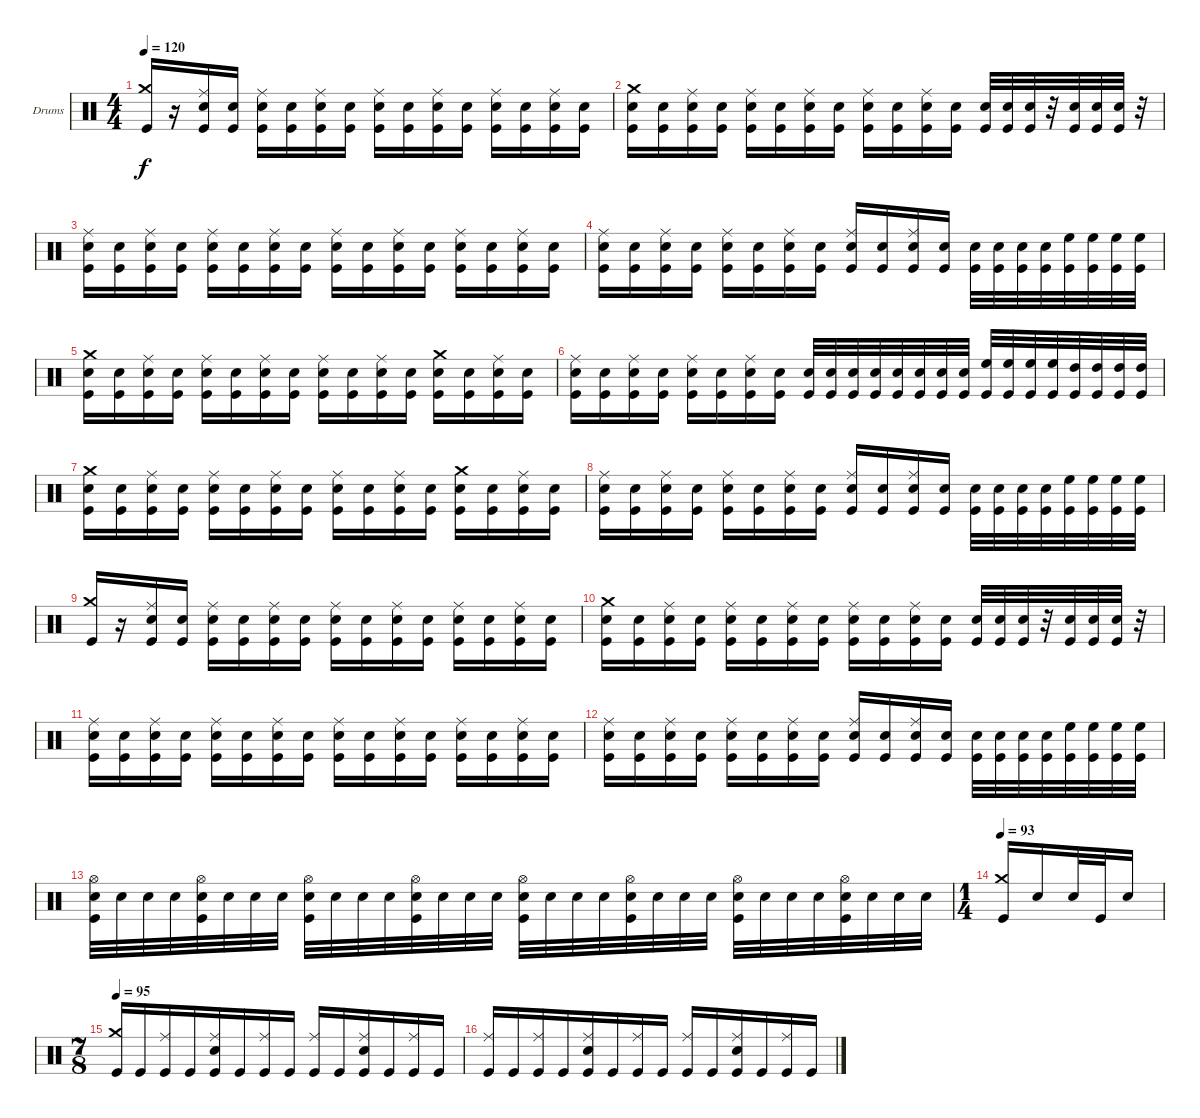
\defaultSystemsLayout 4
\bracketExtendMode groupsimilarinstruments
\firstSystemTrackNameOrientation horizontal
\otherSystemsTrackNameOrientation horizontal
\track ("Drumkit" "Drums") {instrument percussion}
\staff {score}
\articulation defaults
\ts (4 4)
\tempo 120
\clef neutral
\ks c
("Crash medium (hit)" "Kick (hit)").16{dy f beam invert} r.16 ("Kick (hit)" "Snare (hit) 2" "Ride (middle)").16 ("Kick (hit)" "Snare (hit) 2").16 ("Kick (hit)" "Snare (hit) 2" "Ride (middle)").16 ("Kick (hit)" "Snare (hit) 2").16 ("Kick (hit)" "Snare (hit) 2" "Ride (middle)").16 ("Kick (hit)" "Snare (hit) 2").16 ("Kick (hit)" "Snare (hit) 2" "Ride (middle)").16 ("Kick (hit)" "Snare (hit) 2").16 ("Kick (hit)" "Snare (hit) 2" "Ride (middle)").16 ("Kick (hit)" "Snare (hit) 2").16 ("Kick (hit)" "Snare (hit) 2" "Ride (middle)").16 ("Kick (hit)" "Snare (hit) 2").16 ("Kick (hit)" "Snare (hit) 2" "Ride (middle)").16 ("Kick (hit)" "Snare (hit) 2").16 |
("Kick (hit)" "Snare (hit) 2" "Crash medium (hit)").16 ("Kick (hit)" "Snare (hit) 2").16 ("Kick (hit)" "Snare (hit) 2" "Ride (middle)").16 ("Kick (hit)" "Snare (hit) 2").16 ("Kick (hit)" "Snare (hit) 2" "Ride (middle)").16 ("Kick (hit)" "Snare (hit) 2").16 ("Kick (hit)" "Snare (hit) 2" "Ride (middle)").16 ("Kick (hit)" "Snare (hit) 2").16 ("Kick (hit)" "Snare (hit) 2" "Ride (middle)").16 ("Kick (hit)" "Snare (hit) 2").16 ("Kick (hit)" "Snare (hit) 2" "Ride (middle)").16 ("Kick (hit)" "Snare (hit) 2").16 ("Snare (hit) 2" "Kick (hit)").32 ("Snare (hit) 2" "Kick (hit)").32 ("Snare (hit) 2" "Kick (hit)").32 r.32 ("Snare (hit) 2" "Kick (hit)").32 ("Snare (hit) 2" "Kick (hit)").32 ("Snare (hit) 2" "Kick (hit)").32 r.32 |
("Kick (hit)" "Snare (hit) 2" "Ride (middle)").16 ("Kick (hit)" "Snare (hit) 2").16 ("Kick (hit)" "Snare (hit) 2" "Ride (middle)").16 ("Kick (hit)" "Snare (hit) 2").16 ("Kick (hit)" "Snare (hit) 2" "Ride (middle)").16 ("Kick (hit)" "Snare (hit) 2").16 ("Kick (hit)" "Snare (hit) 2" "Ride (middle)").16 ("Kick (hit)" "Snare (hit) 2").16 ("Kick (hit)" "Snare (hit) 2" "Ride (middle)").16 ("Kick (hit)" "Snare (hit) 2").16 ("Kick (hit)" "Snare (hit) 2" "Ride (middle)").16 ("Kick (hit)" "Snare (hit) 2").16 ("Kick (hit)" "Snare (hit) 2" "Ride (middle)").16 ("Kick (hit)" "Snare (hit) 2").16 ("Kick (hit)" "Snare (hit) 2" "Ride (middle)").16 ("Kick (hit)" "Snare (hit) 2").16 |
("Kick (hit)" "Snare (hit) 2" "Ride (middle)").16 ("Kick (hit)" "Snare (hit) 2").16 ("Kick (hit)" "Snare (hit) 2" "Ride (middle)").16 ("Kick (hit)" "Snare (hit) 2").16 ("Kick (hit)" "Snare (hit) 2" "Ride (middle)").16 ("Kick (hit)" "Snare (hit) 2").16 ("Kick (hit)" "Snare (hit) 2" "Ride (middle)").16 ("Kick (hit)" "Snare (hit) 2").16 ("Kick (hit)" "Snare (hit) 2" "Ride (middle)").16 ("Kick (hit)" "Snare (hit) 2").16 ("Kick (hit)" "Snare (hit) 2" "Ride (middle)").16 ("Kick (hit)" "Snare (hit) 2").16 ("Kick (hit)" "Snare (hit) 2").32{beam invert} ("Kick (hit)" "Snare (hit) 2").32 ("Kick (hit)" "Snare (hit) 2").32 ("Kick (hit)" "Snare (hit) 2").32 ("Kick (hit)" "High Floor Tom (hit)").32 ("Kick (hit)" "High Floor Tom (hit)").32 ("Kick (hit)" "High Floor Tom (hit)").32 ("Kick (hit)" "High Floor Tom (hit)").32 |
("Kick (hit)" "Snare (hit) 2" "Crash medium (hit)").16 ("Kick (hit)" "Snare (hit) 2").16 ("Kick (hit)" "Snare (hit) 2" "Ride (middle)").16 ("Kick (hit)" "Snare (hit) 2").16 ("Kick (hit)" "Snare (hit) 2" "Ride (middle)").16 ("Kick (hit)" "Snare (hit) 2").16 ("Kick (hit)" "Snare (hit) 2" "Ride (middle)").16 ("Kick (hit)" "Snare (hit) 2").16 ("Kick (hit)" "Snare (hit) 2" "Ride (middle)").16 ("Kick (hit)" "Snare (hit) 2").16 ("Kick (hit)" "Snare (hit) 2" "Ride (middle)").16 ("Kick (hit)" "Snare (hit) 2").16 ("Kick (hit)" "Snare (hit) 2" "Crash medium (hit)").16 ("Kick (hit)" "Snare (hit) 2").16 ("Kick (hit)" "Snare (hit) 2" "Ride (middle)").16 ("Kick (hit)" "Snare (hit) 2").16 |
("Kick (hit)" "Snare (hit) 2" "Ride (middle)").16 ("Kick (hit)" "Snare (hit) 2").16 ("Kick (hit)" "Snare (hit) 2" "Ride (middle)").16 ("Kick (hit)" "Snare (hit) 2").16 ("Kick (hit)" "Snare (hit) 2" "Ride (middle)").16 ("Kick (hit)" "Snare (hit) 2").16 ("Kick (hit)" "Snare (hit) 2" "Ride (middle)").16 ("Kick (hit)" "Snare (hit) 2").16 ("Kick (hit)" "Snare (hit) 2").32 ("Kick (hit)" "Snare (hit) 2").32 ("Kick (hit)" "Snare (hit) 2").32 ("Kick (hit)" "Snare (hit) 2").32 ("Kick (hit)" "Snare (hit) 2").32 ("Kick (hit)" "Snare (hit) 2").32 ("Kick (hit)" "Snare (hit) 2").32 ("Kick (hit)" "Snare (hit) 2").32 ("Kick (hit)" "High Floor Tom (hit)").32 ("Kick (hit)" "High Floor Tom (hit)").32 ("Kick (hit)" "High Floor Tom (hit)").32 ("Kick (hit)" "High Floor Tom (hit)").32 ("Kick (hit)" "High Tom (hit)").32 ("Kick (hit)" "High Tom (hit)").32 ("Kick (hit)" "High Tom (hit)").32 ("Kick (hit)" "High Tom (hit)").32 |
("Kick (hit)" "Snare (hit) 2" "Crash medium (hit)").16 ("Kick (hit)" "Snare (hit) 2").16 ("Kick (hit)" "Snare (hit) 2" "Ride (middle)").16 ("Kick (hit)" "Snare (hit) 2").16 ("Kick (hit)" "Snare (hit) 2" "Ride (middle)").16 ("Kick (hit)" "Snare (hit) 2").16 ("Kick (hit)" "Snare (hit) 2" "Ride (middle)").16 ("Kick (hit)" "Snare (hit) 2").16 ("Kick (hit)" "Snare (hit) 2" "Ride (middle)").16 ("Kick (hit)" "Snare (hit) 2").16 ("Kick (hit)" "Snare (hit) 2" "Ride (middle)").16 ("Kick (hit)" "Snare (hit) 2").16 ("Kick (hit)" "Snare (hit) 2" "Crash medium (hit)").16 ("Kick (hit)" "Snare (hit) 2").16 ("Kick (hit)" "Snare (hit) 2" "Ride (middle)").16 ("Kick (hit)" "Snare (hit) 2").16 |
("Kick (hit)" "Snare (hit) 2" "Ride (middle)").16 ("Kick (hit)" "Snare (hit) 2").16 ("Kick (hit)" "Snare (hit) 2" "Ride (middle)").16 ("Kick (hit)" "Snare (hit) 2").16 ("Kick (hit)" "Snare (hit) 2" "Ride (middle)").16 ("Kick (hit)" "Snare (hit) 2").16 ("Kick (hit)" "Snare (hit) 2" "Ride (middle)").16 ("Kick (hit)" "Snare (hit) 2").16 ("Kick (hit)" "Snare (hit) 2" "Ride (middle)").16 ("Kick (hit)" "Snare (hit) 2").16 ("Kick (hit)" "Snare (hit) 2" "Ride (middle)").16 ("Kick (hit)" "Snare (hit) 2").16 ("Kick (hit)" "Snare (hit) 2").32{beam invert} ("Kick (hit)" "Snare (hit) 2").32 ("Kick (hit)" "Snare (hit) 2").32 ("Kick (hit)" "Snare (hit) 2").32 ("Kick (hit)" "High Floor Tom (hit)").32 ("Kick (hit)" "High Floor Tom (hit)").32 ("Kick (hit)" "High Floor Tom (hit)").32 ("Kick (hit)" "High Floor Tom (hit)").32 |
("Crash medium (hit)" "Kick (hit)").16{beam invert} r.16 ("Kick (hit)" "Snare (hit) 2" "Ride (middle)").16 ("Kick (hit)" "Snare (hit) 2").16 ("Kick (hit)" "Snare (hit) 2" "Ride (middle)").16 ("Kick (hit)" "Snare (hit) 2").16 ("Kick (hit)" "Snare (hit) 2" "Ride (middle)").16 ("Kick (hit)" "Snare (hit) 2").16 ("Kick (hit)" "Snare (hit) 2" "Ride (middle)").16 ("Kick (hit)" "Snare (hit) 2").16 ("Kick (hit)" "Snare (hit) 2" "Ride (middle)").16 ("Kick (hit)" "Snare (hit) 2").16 ("Kick (hit)" "Snare (hit) 2" "Ride (middle)").16 ("Kick (hit)" "Snare (hit) 2").16 ("Kick (hit)" "Snare (hit) 2" "Ride (middle)").16 ("Kick (hit)" "Snare (hit) 2").16 |
("Kick (hit)" "Snare (hit) 2" "Crash medium (hit)").16 ("Kick (hit)" "Snare (hit) 2").16 ("Kick (hit)" "Snare (hit) 2" "Ride (middle)").16 ("Kick (hit)" "Snare (hit) 2").16 ("Kick (hit)" "Snare (hit) 2" "Ride (middle)").16 ("Kick (hit)" "Snare (hit) 2").16 ("Kick (hit)" "Snare (hit) 2" "Ride (middle)").16 ("Kick (hit)" "Snare (hit) 2").16 ("Kick (hit)" "Snare (hit) 2" "Ride (middle)").16 ("Kick (hit)" "Snare (hit) 2").16 ("Kick (hit)" "Snare (hit) 2" "Ride (middle)").16 ("Kick (hit)" "Snare (hit) 2").16 ("Snare (hit) 2" "Kick (hit)").32 ("Snare (hit) 2" "Kick (hit)").32 ("Snare (hit) 2" "Kick (hit)").32 r.32 ("Snare (hit) 2" "Kick (hit)").32 ("Snare (hit) 2" "Kick (hit)").32 ("Snare (hit) 2" "Kick (hit)").32 r.32 |
("Kick (hit)" "Snare (hit) 2" "Ride (middle)").16 ("Kick (hit)" "Snare (hit) 2").16 ("Kick (hit)" "Snare (hit) 2" "Ride (middle)").16 ("Kick (hit)" "Snare (hit) 2").16 ("Kick (hit)" "Snare (hit) 2" "Ride (middle)").16 ("Kick (hit)" "Snare (hit) 2").16 ("Kick (hit)" "Snare (hit) 2" "Ride (middle)").16 ("Kick (hit)" "Snare (hit) 2").16 ("Kick (hit)" "Snare (hit) 2" "Ride (middle)").16 ("Kick (hit)" "Snare (hit) 2").16 ("Kick (hit)" "Snare (hit) 2" "Ride (middle)").16 ("Kick (hit)" "Snare (hit) 2").16 ("Kick (hit)" "Snare (hit) 2" "Ride (middle)").16 ("Kick (hit)" "Snare (hit) 2").16 ("Kick (hit)" "Snare (hit) 2" "Ride (middle)").16 ("Kick (hit)" "Snare (hit) 2").16 |
("Kick (hit)" "Snare (hit) 2" "Ride (middle)").16 ("Kick (hit)" "Snare (hit) 2").16 ("Kick (hit)" "Snare (hit) 2" "Ride (middle)").16 ("Kick (hit)" "Snare (hit) 2").16 ("Kick (hit)" "Snare (hit) 2" "Ride (middle)").16 ("Kick (hit)" "Snare (hit) 2").16 ("Kick (hit)" "Snare (hit) 2" "Ride (middle)").16 ("Kick (hit)" "Snare (hit) 2").16 ("Kick (hit)" "Snare (hit) 2" "Ride (middle)").16 ("Kick (hit)" "Snare (hit) 2").16 ("Kick (hit)" "Snare (hit) 2" "Ride (middle)").16 ("Kick (hit)" "Snare (hit) 2").16 ("Kick (hit)" "Snare (hit) 2").32{beam invert} ("Kick (hit)" "Snare (hit) 2").32 ("Kick (hit)" "Snare (hit) 2").32 ("Kick (hit)" "Snare (hit) 2").32 ("Kick (hit)" "High Floor Tom (hit)").32 ("Kick (hit)" "High Floor Tom (hit)").32 ("Kick (hit)" "High Floor Tom (hit)").32 ("Kick (hit)" "High Floor Tom (hit)").32 |
("Snare (hit) 2" "Kick (hit)" "Hi-Hat (open)").32 "Snare (hit) 2".32 "Snare (hit) 2".32 "Snare (hit) 2".32 ("Snare (hit) 2" "Kick (hit)" "Hi-Hat (open)").32 "Snare (hit) 2".32 "Snare (hit) 2".32 "Snare (hit) 2".32 ("Snare (hit) 2" "Kick (hit)" "Hi-Hat (open)").32 "Snare (hit) 2".32 "Snare (hit) 2".32 "Snare (hit) 2".32 ("Snare (hit) 2" "Kick (hit)" "Hi-Hat (open)").32 "Snare (hit) 2".32 "Snare (hit) 2".32 "Snare (hit) 2".32 ("Snare (hit) 2" "Kick (hit)" "Hi-Hat (open)").32 "Snare (hit) 2".32 "Snare (hit) 2".32 "Snare (hit) 2".32 ("Snare (hit) 2" "Kick (hit)" "Hi-Hat (open)").32 "Snare (hit) 2".32 "Snare (hit) 2".32 "Snare (hit) 2".32 ("Snare (hit) 2" "Kick (hit)" "Hi-Hat (open)").32 "Snare (hit) 2".32 "Snare (hit) 2".32 "Snare (hit) 2".32 ("Snare (hit) 2" "Kick (hit)" "Hi-Hat (open)").32 "Snare (hit) 2".32 "Snare (hit) 2".32 "Snare (hit) 2".32 |
\ts (1 4)
\tempo 93
("Crash medium (hit)" "Kick (hit)").16{beam invert} "Snare (hit) 2".16 "Snare (hit) 2".32 "Kick (hit)".32 "Snare (hit) 2".16 |
\ts (7 8)
\tempo (95 0.00625)
("Crash medium (hit)" "Kick (hit)").16{beam invert} "Kick (hit)".16 ("Kick (hit)" "Ride (middle)").16 "Kick (hit)".16 ("Kick (hit)" "Ride (middle)" "Snare (hit) 2").16 "Kick (hit)".16 ("Kick (hit)" "Ride (middle)").16{beam invert} "Kick (hit)".16 ("Kick (hit)" "Ride (middle)").16 "Kick (hit)".16 ("Kick (hit)" "Ride (middle)" "Snare (hit) 2").16{beam invert} "Kick (hit)".16 ("Kick (hit)" "Ride (middle)").16 "Kick (hit)".16 |
("Kick (hit)" "Ride (middle)").16 "Kick (hit)".16 ("Kick (hit)" "Ride (middle)").16 "Kick (hit)".16 ("Kick (hit)" "Ride (middle)" "Snare (hit) 2").16 "Kick (hit)".16 ("Kick (hit)" "Ride (middle)").16{beam invert} "Kick (hit)".16 ("Kick (hit)" "Ride (middle)").16 "Kick (hit)".16 ("Kick (hit)" "Ride (middle)" "Snare (hit) 2").16{beam invert} "Kick (hit)".16 ("Kick (hit)" "Ride (middle)").16 "Kick (hit)".16
